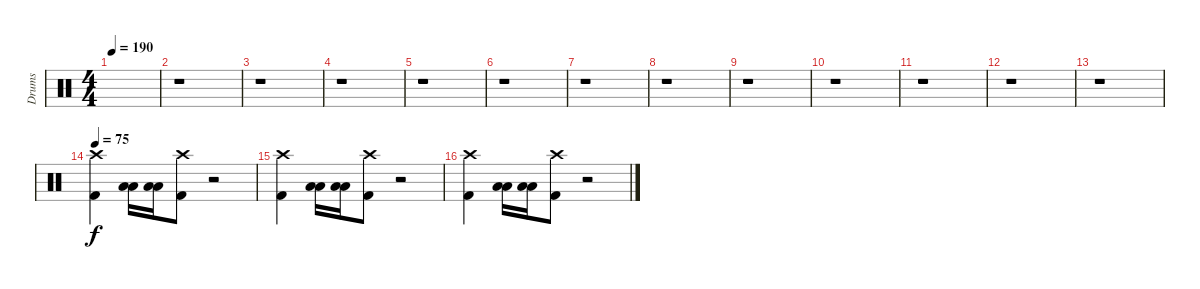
\track ("Drums" "Drums") {instrument percussion}
\staff {score}
\articulation defaults
\ts (4 4)
\tempo 190
\tempo 75
\tempo 190
\clef neutral
\ks c
|
r.1 |
r.1 |
r.1 |
r.1 |
r.1 |
r.1 |
r.1 |
r.1 |
r.1 |
r.1 |
r.1 |
r.1 |
\tempo 75
("Crash high (hit)" "Kick (hit) 2").4 ("Low Tom (hit)" "Low Floor Tom (hit)").16 ("Low Tom (hit)" "Low Floor Tom (hit)").16 ("Crash high (hit)" "Kick (hit) 2").8 r.2 |
("Crash high (hit)" "Kick (hit) 2").4 ("Low Tom (hit)" "Low Floor Tom (hit)").16 ("Low Tom (hit)" "Low Floor Tom (hit)").16 ("Crash high (hit)" "Kick (hit) 2").8 r.2 |
("Crash high (hit)" "Kick (hit) 2").4 ("Low Tom (hit)" "Low Floor Tom (hit)").16 ("Low Tom (hit)" "Low Floor Tom (hit)").16 ("Crash high (hit)" "Kick (hit) 2").8 r.2
